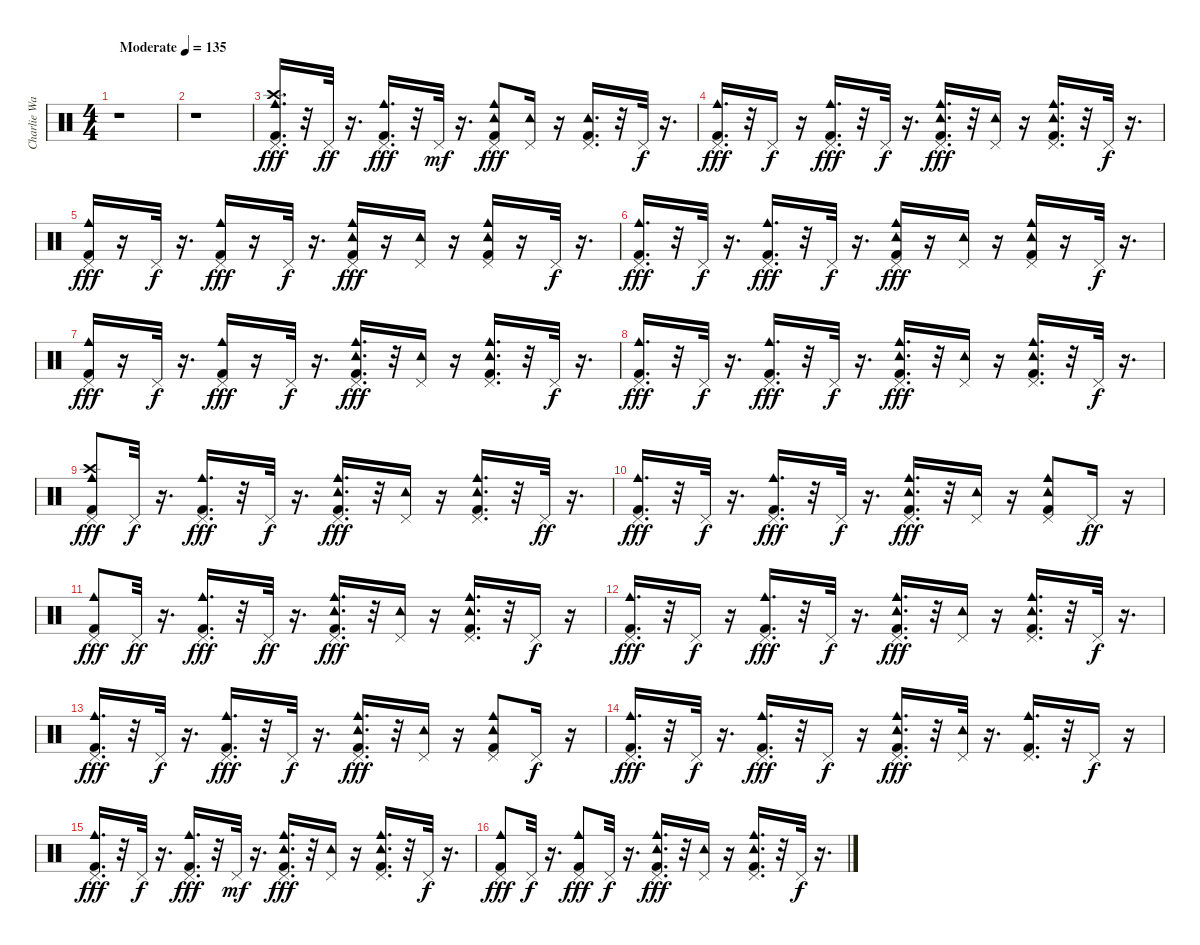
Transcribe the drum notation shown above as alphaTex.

\track ("Charlie Watts - Drums" "Charlie Wa") {instrument percussion}
\staff {score}
\articulation defaults
\ts (4 4)
\tempo (135 "Moderate")
\clef neutral
\ks c
r.1{dy fff} |
r.1 |
("Kick (hit) 2" "Pedal Hi-Hat (hit)" "Crash high (hit)" "Cowbell medium (hit)").16{d} r.32 "Pedal Hi-Hat (hit)".32{dy ff} r.16{d} ("Kick (hit) 2" "Pedal Hi-Hat (hit)" "Cowbell medium (hit)").16{d dy fff} r.32 "Pedal Hi-Hat (hit)".32{dy mf} r.16{d} ("Kick (hit) 2" "Pedal Hi-Hat (hit)" "Tambourine (hit)" "Cowbell medium (hit)").8{dy fff} ("Pedal Hi-Hat (hit)" "Tambourine (hit)").16 r.16 ("Kick (hit) 2" "Pedal Hi-Hat (hit)" "Tambourine (hit)").16{d} r.32 "Pedal Hi-Hat (hit)".32{dy f} r.16{d} |
("Kick (hit) 2" "Pedal Hi-Hat (hit)" "Cowbell medium (hit)").16{d dy fff} r.32 "Pedal Hi-Hat (hit)".16{dy f} r.16 ("Kick (hit) 2" "Pedal Hi-Hat (hit)" "Cowbell medium (hit)").16{d dy fff} r.32 "Pedal Hi-Hat (hit)".32{dy f} r.16{d} ("Kick (hit) 2" "Pedal Hi-Hat (hit)" "Tambourine (hit)" "Cowbell medium (hit)").16{d dy fff} r.32 ("Pedal Hi-Hat (hit)" "Tambourine (hit)").16 r.16 ("Kick (hit) 2" "Pedal Hi-Hat (hit)" "Tambourine (hit)" "Cowbell medium (hit)").16{d} r.32 "Pedal Hi-Hat (hit)".32{dy f} r.16{d} |
("Kick (hit) 2" "Pedal Hi-Hat (hit)" "Cowbell medium (hit)").16{dy fff} r.16 "Pedal Hi-Hat (hit)".32{dy f} r.16{d} ("Kick (hit) 2" "Pedal Hi-Hat (hit)" "Cowbell medium (hit)").16{dy fff} r.16 "Pedal Hi-Hat (hit)".32{dy f} r.16{d} ("Kick (hit) 2" "Pedal Hi-Hat (hit)" "Tambourine (hit)" "Cowbell medium (hit)").16{dy fff} r.16 ("Pedal Hi-Hat (hit)" "Tambourine (hit)").16 r.16 ("Kick (hit) 2" "Pedal Hi-Hat (hit)" "Tambourine (hit)" "Cowbell medium (hit)").16 r.16 "Pedal Hi-Hat (hit)".32{dy f} r.16{d} |
("Kick (hit) 2" "Pedal Hi-Hat (hit)" "Cowbell medium (hit)").16{d dy fff} r.32 "Pedal Hi-Hat (hit)".32{dy f} r.16{d} ("Kick (hit) 2" "Pedal Hi-Hat (hit)" "Cowbell medium (hit)").16{d dy fff} r.32 "Pedal Hi-Hat (hit)".32{dy f} r.16{d} ("Kick (hit) 2" "Pedal Hi-Hat (hit)" "Tambourine (hit)" "Cowbell medium (hit)").16{dy fff} r.16 ("Pedal Hi-Hat (hit)" "Tambourine (hit)").16 r.16 ("Kick (hit) 2" "Pedal Hi-Hat (hit)" "Tambourine (hit)" "Cowbell medium (hit)").16 r.16 "Pedal Hi-Hat (hit)".32{dy f} r.16{d} |
("Kick (hit) 2" "Pedal Hi-Hat (hit)" "Cowbell medium (hit)").16{dy fff} r.16 "Pedal Hi-Hat (hit)".32{dy f} r.16{d} ("Kick (hit) 2" "Pedal Hi-Hat (hit)" "Cowbell medium (hit)").16{dy fff} r.16 "Pedal Hi-Hat (hit)".32{dy f} r.16{d} ("Kick (hit) 2" "Pedal Hi-Hat (hit)" "Tambourine (hit)" "Cowbell medium (hit)").16{d dy fff} r.32 ("Pedal Hi-Hat (hit)" "Tambourine (hit)").16 r.16 ("Kick (hit) 2" "Pedal Hi-Hat (hit)" "Tambourine (hit)" "Cowbell medium (hit)").16{d} r.32 "Pedal Hi-Hat (hit)".32{dy f} r.16{d} |
("Kick (hit) 2" "Pedal Hi-Hat (hit)" "Cowbell medium (hit)").16{d dy fff} r.32 "Pedal Hi-Hat (hit)".32{dy f} r.16{d} ("Kick (hit) 2" "Pedal Hi-Hat (hit)" "Cowbell medium (hit)").16{d dy fff} r.32 "Pedal Hi-Hat (hit)".32{dy f} r.16{d} ("Kick (hit) 2" "Pedal Hi-Hat (hit)" "Tambourine (hit)" "Cowbell medium (hit)").16{d dy fff} r.32 ("Pedal Hi-Hat (hit)" "Tambourine (hit)").16 r.16 ("Kick (hit) 2" "Pedal Hi-Hat (hit)" "Tambourine (hit)" "Cowbell medium (hit)").16{d} r.32 "Pedal Hi-Hat (hit)".32{dy f} r.16{d} |
("Kick (hit) 2" "Pedal Hi-Hat (hit)" "Crash high (hit)" "Cowbell medium (hit)").8{dy fff} "Pedal Hi-Hat (hit)".32{dy f} r.16{d} ("Kick (hit) 2" "Pedal Hi-Hat (hit)" "Cowbell medium (hit)").16{d dy fff} r.32 "Pedal Hi-Hat (hit)".32{dy f} r.16{d} ("Kick (hit) 2" "Pedal Hi-Hat (hit)" "Tambourine (hit)" "Cowbell medium (hit)").16{d dy fff} r.32 ("Pedal Hi-Hat (hit)" "Tambourine (hit)").16 r.16 ("Kick (hit) 2" "Pedal Hi-Hat (hit)" "Tambourine (hit)" "Cowbell medium (hit)").16{d} r.32 "Pedal Hi-Hat (hit)".32{dy ff} r.16{d} |
("Kick (hit) 2" "Pedal Hi-Hat (hit)" "Cowbell medium (hit)").16{d dy fff} r.32 "Pedal Hi-Hat (hit)".32{dy f} r.16{d} ("Kick (hit) 2" "Pedal Hi-Hat (hit)" "Cowbell medium (hit)").16{d dy fff} r.32 "Pedal Hi-Hat (hit)".32{dy f} r.16{d} ("Kick (hit) 2" "Pedal Hi-Hat (hit)" "Tambourine (hit)" "Cowbell medium (hit)").16{d dy fff} r.32 ("Pedal Hi-Hat (hit)" "Tambourine (hit)").16 r.16 ("Kick (hit) 2" "Pedal Hi-Hat (hit)" "Tambourine (hit)" "Cowbell medium (hit)").8 "Pedal Hi-Hat (hit)".16{dy ff} r.16 |
("Kick (hit) 2" "Pedal Hi-Hat (hit)" "Cowbell medium (hit)").8{dy fff} "Pedal Hi-Hat (hit)".32{dy ff} r.16{d} ("Kick (hit) 2" "Pedal Hi-Hat (hit)" "Cowbell medium (hit)").16{d dy fff} r.32 "Pedal Hi-Hat (hit)".32{dy ff} r.16{d} ("Kick (hit) 2" "Pedal Hi-Hat (hit)" "Tambourine (hit)" "Cowbell medium (hit)").16{d dy fff} r.32 ("Pedal Hi-Hat (hit)" "Tambourine (hit)").16 r.16 ("Kick (hit) 2" "Pedal Hi-Hat (hit)" "Tambourine (hit)" "Cowbell medium (hit)").16{d} r.32 "Pedal Hi-Hat (hit)".16{dy f} r.16 |
("Kick (hit) 2" "Pedal Hi-Hat (hit)" "Cowbell medium (hit)").16{d dy fff} r.32 "Pedal Hi-Hat (hit)".16{dy f} r.16 ("Kick (hit) 2" "Pedal Hi-Hat (hit)" "Cowbell medium (hit)").16{d dy fff} r.32 "Pedal Hi-Hat (hit)".32{dy f} r.16{d} ("Kick (hit) 2" "Pedal Hi-Hat (hit)" "Tambourine (hit)" "Cowbell medium (hit)").16{d dy fff} r.32 ("Pedal Hi-Hat (hit)" "Tambourine (hit)").16 r.16 ("Kick (hit) 2" "Pedal Hi-Hat (hit)" "Tambourine (hit)" "Cowbell medium (hit)").16{d} r.32 "Pedal Hi-Hat (hit)".32{dy f} r.16{d} |
("Kick (hit) 2" "Pedal Hi-Hat (hit)" "Cowbell medium (hit)").16{d dy fff} r.32 "Pedal Hi-Hat (hit)".32{dy f} r.16{d} ("Kick (hit) 2" "Pedal Hi-Hat (hit)" "Cowbell medium (hit)").16{d dy fff} r.32 "Pedal Hi-Hat (hit)".32{dy f} r.16{d} ("Kick (hit) 2" "Pedal Hi-Hat (hit)" "Tambourine (hit)" "Cowbell medium (hit)").16{d dy fff} r.32 ("Pedal Hi-Hat (hit)" "Tambourine (hit)").16 r.16 ("Kick (hit) 2" "Pedal Hi-Hat (hit)" "Tambourine (hit)" "Cowbell medium (hit)").8 "Pedal Hi-Hat (hit)".16{dy f} r.16 |
("Kick (hit) 2" "Pedal Hi-Hat (hit)" "Cowbell medium (hit)").16{d dy fff} r.32 "Pedal Hi-Hat (hit)".32{dy f} r.16{d} ("Kick (hit) 2" "Pedal Hi-Hat (hit)" "Cowbell medium (hit)").16{d dy fff} r.32 "Pedal Hi-Hat (hit)".16{dy f} r.16 ("Kick (hit) 2" "Pedal Hi-Hat (hit)" "Tambourine (hit)" "Cowbell medium (hit)").16{d dy fff} r.32 ("Pedal Hi-Hat (hit)" "Tambourine (hit)").32 r.16{d} ("Kick (hit) 2" "Pedal Hi-Hat (hit)" "Cowbell medium (hit)").16{d} r.32 "Pedal Hi-Hat (hit)".16{dy f} r.16 |
("Kick (hit) 2" "Pedal Hi-Hat (hit)" "Cowbell medium (hit)").16{d dy fff} r.32 "Pedal Hi-Hat (hit)".32{dy f} r.16{d} ("Kick (hit) 2" "Pedal Hi-Hat (hit)" "Cowbell medium (hit)").16{d dy fff} r.32 "Pedal Hi-Hat (hit)".32{dy mf} r.16{d} ("Kick (hit) 2" "Pedal Hi-Hat (hit)" "Tambourine (hit)" "Cowbell medium (hit)").16{d dy fff} r.32 ("Pedal Hi-Hat (hit)" "Tambourine (hit)").16 r.16 ("Kick (hit) 2" "Pedal Hi-Hat (hit)" "Tambourine (hit)" "Cowbell medium (hit)").16{d} r.32 "Pedal Hi-Hat (hit)".32{dy f} r.16{d} |
("Kick (hit) 2" "Pedal Hi-Hat (hit)" "Cowbell medium (hit)").8{dy fff} "Pedal Hi-Hat (hit)".32{dy f} r.16{d} ("Kick (hit) 2" "Pedal Hi-Hat (hit)" "Cowbell medium (hit)").8{dy fff} "Pedal Hi-Hat (hit)".32{dy f} r.16{d} ("Kick (hit) 2" "Pedal Hi-Hat (hit)" "Tambourine (hit)" "Cowbell medium (hit)").16{d dy fff} r.32 ("Pedal Hi-Hat (hit)" "Tambourine (hit)").16 r.16 ("Kick (hit) 2" "Pedal Hi-Hat (hit)" "Tambourine (hit)" "Cowbell medium (hit)").16{d} r.32 "Pedal Hi-Hat (hit)".32{dy f} r.16{d}
